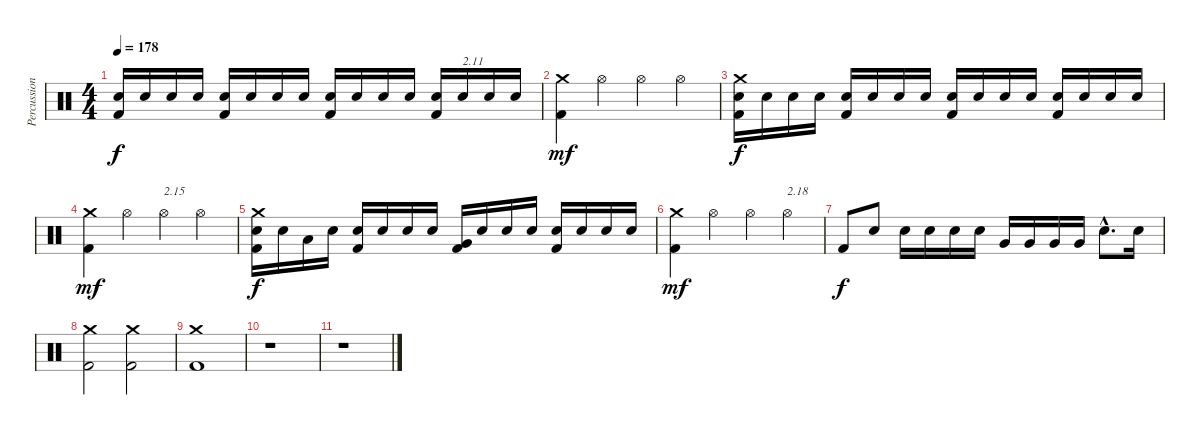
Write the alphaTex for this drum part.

\track ("Percussions" "Percussion") {instrument percussion}
\staff {score}
\articulation defaults
\ts (4 4)
\tempo 178
\clef neutral
\ks c
("Kick (hit) 2" "Electric Snare (hit)").16{dy f} "Electric Snare (hit)".16 "Electric Snare (hit)".16 "Electric Snare (hit)".16 ("Kick (hit) 2" "Electric Snare (hit)").16 "Electric Snare (hit)".16 "Electric Snare (hit)".16 "Electric Snare (hit)".16 ("Kick (hit) 2" "Electric Snare (hit)").16 "Electric Snare (hit)".16 "Electric Snare (hit)".16 "Electric Snare (hit)".16 ("Kick (hit) 2" "Electric Snare (hit)").16 "Electric Snare (hit)".16{txt "2.11"} "Electric Snare (hit)".16 "Electric Snare (hit)".16 |
("Kick (hit) 2" "Crash medium (hit)").4{dy mf} "Hi-Hat (open)".4 "Hi-Hat (open)".4 "Hi-Hat (open)".4 |
("Kick (hit) 2" "Electric Snare (hit)" "Crash medium (hit)").16{dy f} "Electric Snare (hit)".16 "Electric Snare (hit)".16 "Electric Snare (hit)".16 ("Kick (hit) 2" "Electric Snare (hit)").16 "Electric Snare (hit)".16 "Electric Snare (hit)".16 "Electric Snare (hit)".16 ("Kick (hit) 2" "Electric Snare (hit)").16 "Electric Snare (hit)".16 "Electric Snare (hit)".16 "Electric Snare (hit)".16 ("Kick (hit) 2" "Electric Snare (hit)").16 "Electric Snare (hit)".16 "Electric Snare (hit)".16 "Electric Snare (hit)".16 |
("Kick (hit) 2" "Crash medium (hit)").4{dy mf} "Hi-Hat (open)".4 "Hi-Hat (open)".4{txt "2.15"} "Hi-Hat (open)".4 |
("Kick (hit) 2" "Electric Snare (hit)" "Crash medium (hit)").16{dy f} "Electric Snare (hit)".16 "Low Tom (hit)".16 "Electric Snare (hit)".16 ("Kick (hit) 2" "Electric Snare (hit)").16 "Electric Snare (hit)".16 "Electric Snare (hit)".16 "Electric Snare (hit)".16 ("Kick (hit) 2" "Very Low Tom (hit)").16 "Electric Snare (hit)".16 "Electric Snare (hit)".16 "Electric Snare (hit)".16 ("Kick (hit) 2" "Electric Snare (hit)").16 "Electric Snare (hit)".16 "Electric Snare (hit)".16 "Electric Snare (hit)".16 |
("Kick (hit) 2" "Crash medium (hit)").4{dy mf} "Hi-Hat (open)".4 "Hi-Hat (open)".4 "Hi-Hat (open)".4{txt "2.18"} |
"Kick (hit) 2".8{dy f} "Electric Snare (hit)".8 "Electric Snare (hit)".16 "Electric Snare (hit)".16 "Electric Snare (hit)".16 "Electric Snare (hit)".16 "Very Low Tom (hit)".16 "Very Low Tom (hit)".16 "Very Low Tom (hit)".16 "Very Low Tom (hit)".16 "Electric Snare (hit)"{hac}.8{d} "Electric Snare (hit)".16 |
("Kick (hit) 2" "Crash medium (hit)").2 ("Kick (hit) 2" "Crash medium (hit)").2 |
("Kick (hit) 2" "Crash medium (hit)").1 |
r.1 |
r.1
